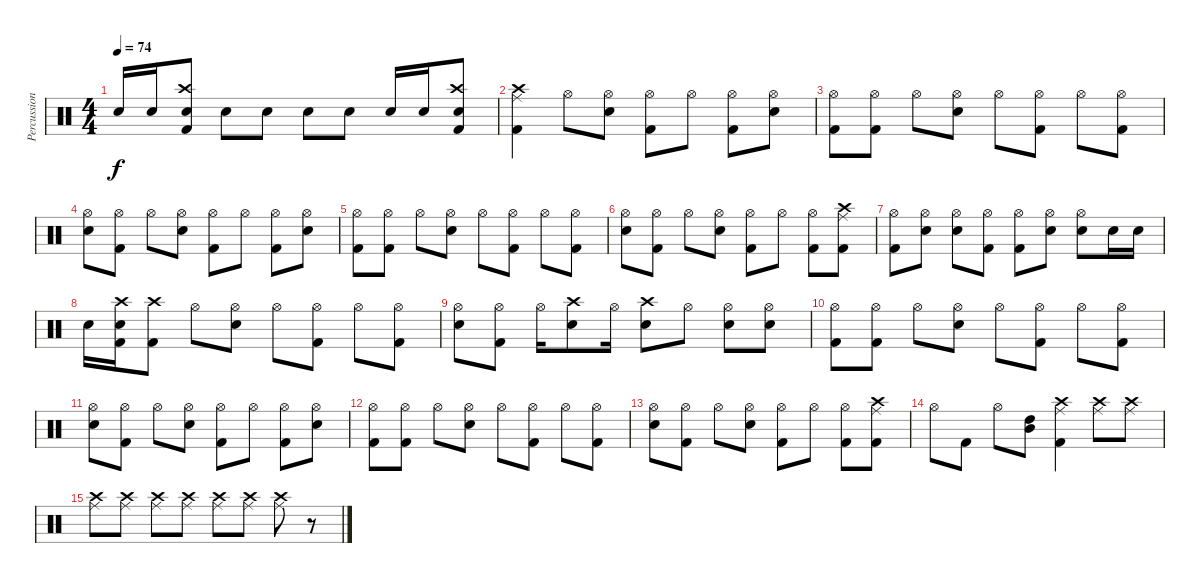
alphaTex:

\track ("Percussion" "Percussion") {instrument percussion}
\staff {score}
\articulation defaults
\ts (4 4)
\tempo 74
\clef neutral
\ks c "Snare (hit) 2".16{dy f} "Snare (hit) 2".16
("Crash high (hit)" "Kick (hit) 2" "Snare (hit) 2").8 "Snare (hit) 2".8 "Snare (hit) 2".8 "Snare (hit) 2".8 "Snare (hit) 2".8 "Snare (hit) 2".16 "Snare (hit) 2".16 ("Crash high (hit)" "Kick (hit) 2" "Snare (hit) 2").8 |
("Ride (middle)" "Crash high (hit)" "Kick (hit) 2").4 "Hi-Hat (open)".8 ("Hi-Hat (open)" "Snare (hit) 2").8 ("Hi-Hat (open)" "Kick (hit) 2").8 "Hi-Hat (open)".8 ("Hi-Hat (open)" "Kick (hit) 2").8 ("Hi-Hat (open)" "Snare (hit) 2").8 |
("Hi-Hat (open)" "Kick (hit) 2").8 ("Hi-Hat (open)" "Kick (hit) 2").8 "Hi-Hat (open)".8 ("Hi-Hat (open)" "Snare (hit) 2").8 "Hi-Hat (open)".8 ("Hi-Hat (open)" "Kick (hit) 2").8 "Hi-Hat (open)".8 ("Hi-Hat (open)" "Kick (hit) 2").8 |
("Hi-Hat (open)" "Snare (hit) 2").8 ("Hi-Hat (open)" "Kick (hit) 2").8 "Hi-Hat (open)".8 ("Hi-Hat (open)" "Snare (hit) 2").8 ("Hi-Hat (open)" "Kick (hit) 2").8 "Hi-Hat (open)".8 ("Hi-Hat (open)" "Kick (hit) 2").8 ("Hi-Hat (open)" "Snare (hit) 2").8 |
("Hi-Hat (open)" "Kick (hit) 2").8 ("Hi-Hat (open)" "Kick (hit) 2").8 "Hi-Hat (open)".8 ("Hi-Hat (open)" "Snare (hit) 2").8 "Hi-Hat (open)".8 ("Hi-Hat (open)" "Kick (hit) 2").8 "Hi-Hat (open)".8 ("Hi-Hat (open)" "Kick (hit) 2").8 |
("Hi-Hat (open)" "Snare (hit) 2").8 ("Hi-Hat (open)" "Kick (hit) 2").8 "Hi-Hat (open)".8 ("Hi-Hat (open)" "Snare (hit) 2").8 ("Hi-Hat (open)" "Kick (hit) 2").8 "Hi-Hat (open)".8 ("Hi-Hat (open)" "Kick (hit) 2").8 ("Crash high (hit)" "Kick (hit) 2" "Ride (middle)").8 |
("Hi-Hat (open)" "Kick (hit) 2").8 ("Hi-Hat (open)" "Snare (hit) 2").8 ("Hi-Hat (open)" "Snare (hit) 2").8 ("Hi-Hat (open)" "Kick (hit) 2").8 ("Hi-Hat (open)" "Kick (hit) 2").8 ("Hi-Hat (open)" "Snare (hit) 2").8 ("Hi-Hat (open)" "Snare (hit) 2").8 "Snare (hit) 2".16 "Snare (hit) 2".16 |
"Snare (hit) 2".16 ("Crash high (hit)" "Kick (hit) 2" "Snare (hit) 2").16 ("Crash high (hit)" "Kick (hit) 2").8 "Hi-Hat (open)".8 ("Hi-Hat (open)" "Snare (hit) 2").8 "Hi-Hat (open)".8 ("Hi-Hat (open)" "Kick (hit) 2").8 "Hi-Hat (open)".8 ("Hi-Hat (open)" "Kick (hit) 2").8 |
("Hi-Hat (open)" "Snare (hit) 2").8 ("Hi-Hat (open)" "Kick (hit) 2").8 "Hi-Hat (open)".16 ("Crash high (hit)" "Snare (hit) 2").8 "Hi-Hat (open)".16 ("Crash high (hit)" "Snare (hit) 2").8 "Hi-Hat (open)".8 ("Hi-Hat (open)" "Snare (hit) 2").8 ("Hi-Hat (open)" "Snare (hit) 2").8 |
("Hi-Hat (open)" "Kick (hit) 2").8 ("Hi-Hat (open)" "Kick (hit) 2").8 "Hi-Hat (open)".8 ("Hi-Hat (open)" "Snare (hit) 2").8 "Hi-Hat (open)".8 ("Hi-Hat (open)" "Kick (hit) 2").8 "Hi-Hat (open)".8 ("Hi-Hat (open)" "Kick (hit) 2").8 |
("Hi-Hat (open)" "Snare (hit) 2").8 ("Hi-Hat (open)" "Kick (hit) 2").8 "Hi-Hat (open)".8 ("Hi-Hat (open)" "Snare (hit) 2").8 ("Hi-Hat (open)" "Kick (hit) 2").8 "Hi-Hat (open)".8 ("Hi-Hat (open)" "Kick (hit) 2").8 ("Hi-Hat (open)" "Snare (hit) 2").8 |
("Hi-Hat (open)" "Kick (hit) 2").8 ("Hi-Hat (open)" "Kick (hit) 2").8 "Hi-Hat (open)".8 ("Hi-Hat (open)" "Snare (hit) 2").8 "Hi-Hat (open)".8 ("Hi-Hat (open)" "Kick (hit) 2").8 "Hi-Hat (open)".8 ("Hi-Hat (open)" "Kick (hit) 2").8 |
("Hi-Hat (open)" "Snare (hit) 2").8 ("Hi-Hat (open)" "Kick (hit) 2").8 "Hi-Hat (open)".8 ("Hi-Hat (open)" "Snare (hit) 2").8 ("Hi-Hat (open)" "Kick (hit) 2").8 "Hi-Hat (open)".8 ("Hi-Hat (open)" "Kick (hit) 2").8 ("Crash high (hit)" "Kick (hit) 2" "Ride (middle)").8 |
"Hi-Hat (open)".8 "Kick (hit) 2".8 "Hi-Hat (open)".8 ("Mid Tom (hit)" "High Tom (hit)").8 ("Ride (middle)" "Crash high (hit)" "Kick (hit) 2").4 ("Ride (middle)" "Crash high (hit)").8 ("Ride (middle)" "Crash high (hit)").8 |
("Ride (middle)" "Crash high (hit)").8 ("Ride (middle)" "Crash high (hit)").8 ("Ride (middle)" "Crash high (hit)").8 ("Ride (middle)" "Crash high (hit)").8 ("Ride (middle)" "Crash high (hit)").8 ("Ride (middle)" "Crash high (hit)").8 ("Ride (middle)" "Crash high (hit)").8 r.8
